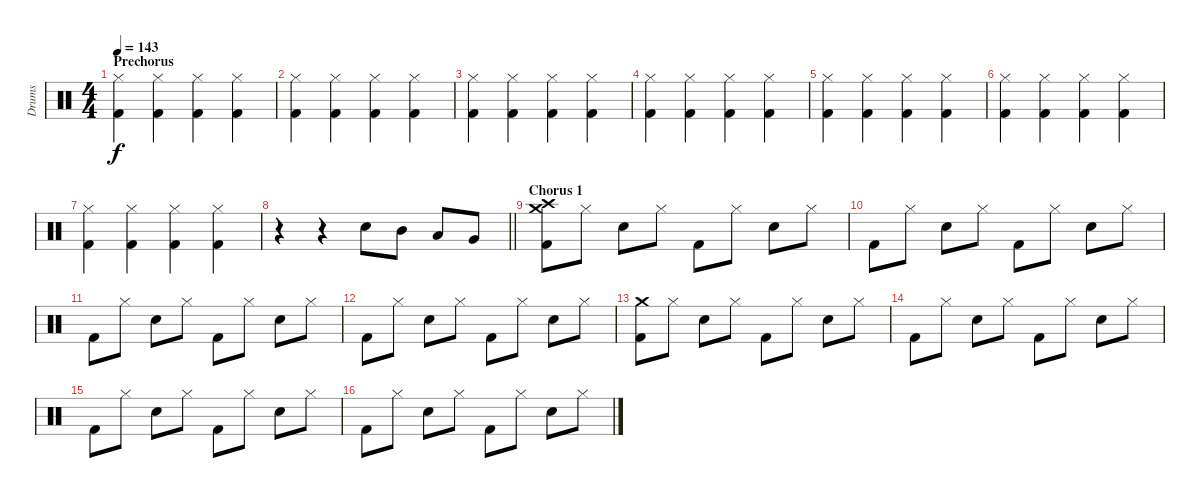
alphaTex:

\track ("Drums" "Drums") {instrument percussion}
\staff {score}
\articulation defaults
\ts (4 4)
\section ("" "Prechorus")
\tempo 143
\clef neutral
\ks c
("Hi-Hat (closed)" "Kick (hit) 2").4{dy f} ("Hi-Hat (closed)" "Kick (hit) 2").4 ("Hi-Hat (closed)" "Kick (hit) 2").4 ("Hi-Hat (closed)" "Kick (hit) 2").4 |
("Hi-Hat (closed)" "Kick (hit) 2").4 ("Hi-Hat (closed)" "Kick (hit) 2").4 ("Hi-Hat (closed)" "Kick (hit) 2").4 ("Hi-Hat (closed)" "Kick (hit) 2").4 |
("Hi-Hat (closed)" "Kick (hit) 2").4 ("Hi-Hat (closed)" "Kick (hit) 2").4 ("Hi-Hat (closed)" "Kick (hit) 2").4 ("Hi-Hat (closed)" "Kick (hit) 2").4 |
("Hi-Hat (closed)" "Kick (hit) 2").4 ("Hi-Hat (closed)" "Kick (hit) 2").4 ("Hi-Hat (closed)" "Kick (hit) 2").4 ("Hi-Hat (closed)" "Kick (hit) 2").4 |
("Hi-Hat (closed)" "Kick (hit) 2").4 ("Hi-Hat (closed)" "Kick (hit) 2").4 ("Hi-Hat (closed)" "Kick (hit) 2").4 ("Hi-Hat (closed)" "Kick (hit) 2").4 |
("Hi-Hat (closed)" "Kick (hit) 2").4 ("Hi-Hat (closed)" "Kick (hit) 2").4 ("Hi-Hat (closed)" "Kick (hit) 2").4 ("Hi-Hat (closed)" "Kick (hit) 2").4 |
("Hi-Hat (closed)" "Kick (hit) 2").4 ("Hi-Hat (closed)" "Kick (hit) 2").4 ("Hi-Hat (closed)" "Kick (hit) 2").4 ("Hi-Hat (closed)" "Kick (hit) 2").4 |
\barLineRight lightlight
r.4 r.4 "Snare (hit) 2".8 "Mid Tom (hit)".8 "Low Tom (hit)".8 "Very Low Tom (hit)".8 |
\section ("" "Chorus 1")
("Crash medium (hit)" "Crash high (hit)" "Kick (hit) 2").8 "Hi-Hat (closed)".8 "Snare (hit) 2".8 "Hi-Hat (closed)".8 "Kick (hit) 2".8 "Hi-Hat (closed)".8 "Snare (hit) 2".8 "Hi-Hat (closed)".8 |
"Kick (hit) 2".8 "Hi-Hat (closed)".8 "Snare (hit) 2".8 "Hi-Hat (closed)".8 "Kick (hit) 2".8 "Hi-Hat (closed)".8 "Snare (hit) 2".8 "Hi-Hat (closed)".8 |
"Kick (hit) 2".8 "Hi-Hat (closed)".8 "Snare (hit) 2".8 "Hi-Hat (closed)".8 "Kick (hit) 2".8 "Hi-Hat (closed)".8 "Snare (hit) 2".8 "Hi-Hat (closed)".8 |
"Kick (hit) 2".8 "Hi-Hat (closed)".8 "Snare (hit) 2".8 "Hi-Hat (closed)".8 "Kick (hit) 2".8 "Hi-Hat (closed)".8 "Snare (hit) 2".8 "Hi-Hat (closed)".8 |
("Crash medium (hit)" "Kick (hit) 2").8 "Hi-Hat (closed)".8 "Snare (hit) 2".8 "Hi-Hat (closed)".8 "Kick (hit) 2".8 "Hi-Hat (closed)".8 "Snare (hit) 2".8 "Hi-Hat (closed)".8 |
"Kick (hit) 2".8 "Hi-Hat (closed)".8 "Snare (hit) 2".8 "Hi-Hat (closed)".8 "Kick (hit) 2".8 "Hi-Hat (closed)".8 "Snare (hit) 2".8 "Hi-Hat (closed)".8 |
"Kick (hit) 2".8 "Hi-Hat (closed)".8 "Snare (hit) 2".8 "Hi-Hat (closed)".8 "Kick (hit) 2".8 "Hi-Hat (closed)".8 "Snare (hit) 2".8 "Hi-Hat (closed)".8 |
"Kick (hit) 2".8 "Hi-Hat (closed)".8 "Snare (hit) 2".8 "Hi-Hat (closed)".8 "Kick (hit) 2".8 "Hi-Hat (closed)".8 "Snare (hit) 2".8 "Hi-Hat (closed)".8
